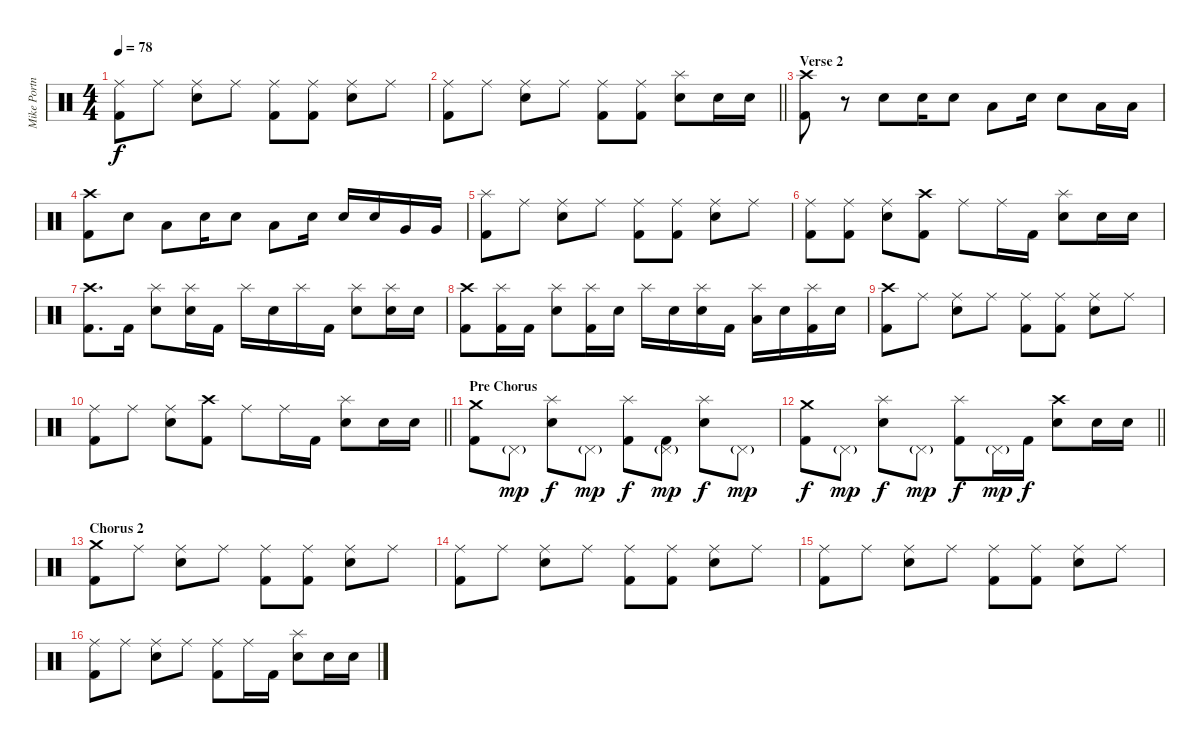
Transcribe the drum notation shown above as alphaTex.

\track ("Mike Portnoy" "Mike Portn") {instrument percussion}
\staff {score}
\articulation defaults
\ts (4 4)
\tempo 78
\clef neutral
\ks c
("Ride (middle)" "Kick (hit) 2").8{dy f} "Ride (middle)".8 ("Ride (middle)" "Electric Snare (hit)").8 "Ride (middle)".8 ("Ride (middle)" "Kick (hit) 2").8 ("Ride (middle)" "Kick (hit) 2").8 ("Ride (middle)" "Electric Snare (hit)").8 "Ride (middle)".8 |
\barLineRight lightlight
("Ride (middle)" "Kick (hit) 2").8 "Ride (middle)".8 ("Ride (middle)" "Electric Snare (hit)").8 "Ride (middle)".8 ("Ride (middle)" "Kick (hit) 2").8 ("Ride (middle)" "Kick (hit) 2").8 ("Splash (hit)" "Electric Snare (hit)").8 "Electric Snare (hit)".16 "Electric Snare (hit)".16 |
\section ("" "Verse 2")
("Crash high (hit)" "Kick (hit) 2").8 r.8 "Electric Snare (hit)".8 "Electric Snare (hit)".16 "Electric Snare (hit)".8 "Low Tom (hit)".8 "Electric Snare (hit)".16 "Electric Snare (hit)".8 "Low Tom (hit)".16 "Low Tom (hit)".16 |
("Crash high (hit)" "Kick (hit) 2").8 "Electric Snare (hit)".8 "Low Tom (hit)".8 "Electric Snare (hit)".16 "Electric Snare (hit)".8 "Low Tom (hit)".8 "Electric Snare (hit)".16 "Electric Snare (hit)".16 "Electric Snare (hit)".16 "Very Low Tom (hit)".16 "Very Low Tom (hit)".16 |
("Splash (hit)" "Kick (hit) 2").8 "Ride (middle)".8 ("Ride (middle)" "Electric Snare (hit)").8 "Ride (middle)".8 ("Ride (middle)" "Kick (hit) 2").8 ("Ride (middle)" "Kick (hit) 2").8 ("Ride (middle)" "Electric Snare (hit)").8 "Ride (middle)".8 |
("Ride (middle)" "Kick (hit) 2").8 ("Ride (middle)" "Kick (hit) 2").8 ("Ride (middle)" "Electric Snare (hit)").8 ("Crash high (hit)" "Kick (hit) 2").8 "Ride (middle)".8 "Ride (middle)".16 "Kick (hit) 2".16 ("Splash (hit)" "Electric Snare (hit)").8 "Electric Snare (hit)".16 "Electric Snare (hit)".16 |
("Crash high (hit)" "Kick (hit) 2").8{d} "Kick (hit) 2".16 ("Splash (hit)" "Electric Snare (hit)").8 ("Splash (hit)" "Electric Snare (hit)").16 "Kick (hit) 2".16 "Splash (hit)".16 "Electric Snare (hit)".16 "Splash (hit)".16 "Kick (hit) 2".16 ("Splash (hit)" "Electric Snare (hit)").8 ("Splash (hit)" "Electric Snare (hit)").16 "Electric Snare (hit)".16 |
("Crash high (hit)" "Kick (hit) 2").8 ("Splash (hit)" "Kick (hit) 2").16 "Kick (hit) 2".16 ("Splash (hit)" "Electric Snare (hit)").8 ("Splash (hit)" "Kick (hit) 2").16 "Electric Snare (hit)".16 "Splash (hit)".16 "Electric Snare (hit)".16 ("Splash (hit)" "Electric Snare (hit)").16 "Kick (hit) 2".16 ("Splash (hit)" "Low Tom (hit)").16 "Electric Snare (hit)".16 ("Splash (hit)" "Kick (hit) 2").16 "Electric Snare (hit)".16 |
("Crash high (hit)" "Kick (hit) 2").8 "Ride (middle)".8 ("Ride (middle)" "Electric Snare (hit)").8 "Ride (middle)".8 ("Ride (middle)" "Kick (hit) 2").8 ("Ride (middle)" "Kick (hit) 2").8 ("Ride (middle)" "Electric Snare (hit)").8 "Ride (middle)".8 |
\barLineRight lightlight
("Ride (middle)" "Kick (hit) 2").8 "Ride (middle)".8 ("Ride (middle)" "Electric Snare (hit)").8 ("Crash high (hit)" "Kick (hit) 2").8 "Ride (middle)".8 "Ride (middle)".16 "Kick (hit) 2".16 ("Splash (hit)" "Electric Snare (hit)").8 "Electric Snare (hit)".16 "Electric Snare (hit)".16 |
\section ("" "Pre Chorus")
("Crash medium (hit)" "Kick (hit) 2").8 "Pedal Hi-Hat (hit)"{g}.8{dy mp} ("Splash (hit)" "Electric Snare (hit)").8{dy f} "Pedal Hi-Hat (hit)"{g}.8{dy mp} ("Splash (hit)" "Kick (hit) 2").8{dy f} ("Pedal Hi-Hat (hit)"{g} "Kick (hit) 2").8{dy mp} ("Splash (hit)" "Electric Snare (hit)").8{dy f} "Pedal Hi-Hat (hit)"{g}.8{dy mp} |
\barLineRight lightlight
("Crash medium (hit)" "Kick (hit) 2").8{dy f} "Pedal Hi-Hat (hit)"{g}.8{dy mp} ("Splash (hit)" "Electric Snare (hit)").8{dy f} "Pedal Hi-Hat (hit)"{g}.8{dy mp} ("Splash (hit)" "Kick (hit) 2").8{dy f} "Pedal Hi-Hat (hit)"{g}.16{dy mp} "Kick (hit) 2".16{dy f} ("Crash high (hit)" "Electric Snare (hit)").8 "Electric Snare (hit)".16 "Electric Snare (hit)".16 |
\section ("" "Chorus 2")
("Crash medium (hit)" "Kick (hit) 2").8 "Ride (middle)".8 ("Ride (middle)" "Electric Snare (hit)").8 "Ride (middle)".8 ("Ride (middle)" "Kick (hit) 2").8 ("Ride (middle)" "Kick (hit) 2").8 ("Ride (middle)" "Electric Snare (hit)").8 "Ride (middle)".8 |
("Ride (middle)" "Kick (hit) 2").8 "Ride (middle)".8 ("Ride (middle)" "Electric Snare (hit)").8 "Ride (middle)".8 ("Ride (middle)" "Kick (hit) 2").8 ("Ride (middle)" "Kick (hit) 2").8 ("Ride (middle)" "Electric Snare (hit)").8 "Ride (middle)".8 |
("Ride (middle)" "Kick (hit) 2").8 "Ride (middle)".8 ("Ride (middle)" "Electric Snare (hit)").8 "Ride (middle)".8 ("Ride (middle)" "Kick (hit) 2").8 ("Ride (middle)" "Kick (hit) 2").8 ("Ride (middle)" "Electric Snare (hit)").8 "Ride (middle)".8 |
("Ride (middle)" "Kick (hit) 2").8 "Ride (middle)".8 ("Ride (middle)" "Electric Snare (hit)").8 "Ride (middle)".8 ("Ride (middle)" "Kick (hit) 2").8 "Ride (middle)".16 "Kick (hit) 2".16 ("Splash (hit)" "Electric Snare (hit)").8 "Electric Snare (hit)".16 "Electric Snare (hit)".16
